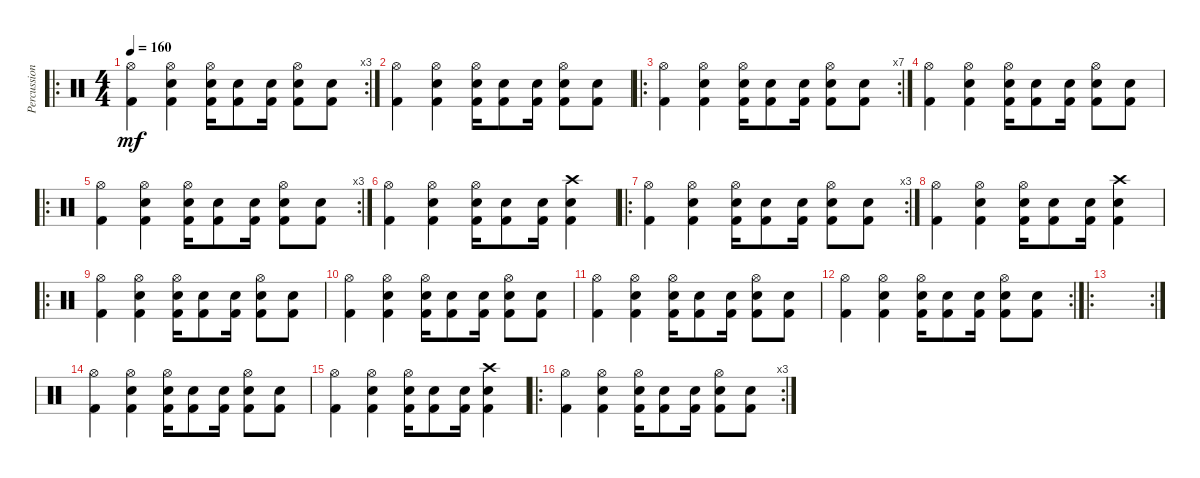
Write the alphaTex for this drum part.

\track ("Percussion" "Percussion") {instrument percussion}
\staff {score}
\articulation defaults
\ro
\rc 3
\ts (4 4)
\tempo 160
\clef neutral
\ks c
("Hi-Hat (open)" "Kick (hit) 2").4{dy mf} ("Hi-Hat (open)" "Electric Snare (hit)" "Kick (hit) 2").4 ("Hi-Hat (open)" "Electric Snare (hit)" "Kick (hit) 2").16 ("Electric Snare (hit)" "Kick (hit) 2").8 ("Electric Snare (hit)" "Kick (hit) 2").16 ("Hi-Hat (open)" "Electric Snare (hit)" "Kick (hit) 2").8 ("Electric Snare (hit)" "Kick (hit) 2").8 |
("Hi-Hat (open)" "Kick (hit) 2").4 ("Hi-Hat (open)" "Electric Snare (hit)" "Kick (hit) 2").4 ("Hi-Hat (open)" "Electric Snare (hit)" "Kick (hit) 2").16 ("Electric Snare (hit)" "Kick (hit) 2").8 ("Electric Snare (hit)" "Kick (hit) 2").16 ("Hi-Hat (open)" "Electric Snare (hit)" "Kick (hit) 2").8 ("Electric Snare (hit)" "Kick (hit) 2").8 |
\ro
\rc 7
("Hi-Hat (open)" "Kick (hit) 2").4 ("Hi-Hat (open)" "Electric Snare (hit)" "Kick (hit) 2").4 ("Hi-Hat (open)" "Electric Snare (hit)" "Kick (hit) 2").16 ("Electric Snare (hit)" "Kick (hit) 2").8 ("Electric Snare (hit)" "Kick (hit) 2").16 ("Hi-Hat (open)" "Electric Snare (hit)" "Kick (hit) 2").8 ("Electric Snare (hit)" "Kick (hit) 2").8 |
("Hi-Hat (open)" "Kick (hit) 2").4 ("Hi-Hat (open)" "Electric Snare (hit)" "Kick (hit) 2").4 ("Hi-Hat (open)" "Electric Snare (hit)" "Kick (hit) 2").16 ("Electric Snare (hit)" "Kick (hit) 2").8 ("Electric Snare (hit)" "Kick (hit) 2").16 ("Hi-Hat (open)" "Electric Snare (hit)" "Kick (hit) 2").8 ("Electric Snare (hit)" "Kick (hit) 2").8 |
\ro
\rc 3
("Hi-Hat (open)" "Kick (hit) 2").4 ("Hi-Hat (open)" "Electric Snare (hit)" "Kick (hit) 2").4 ("Hi-Hat (open)" "Electric Snare (hit)" "Kick (hit) 2").16 ("Electric Snare (hit)" "Kick (hit) 2").8 ("Electric Snare (hit)" "Kick (hit) 2").16 ("Hi-Hat (open)" "Electric Snare (hit)" "Kick (hit) 2").8 ("Electric Snare (hit)" "Kick (hit) 2").8 |
("Hi-Hat (open)" "Kick (hit) 2").4 ("Hi-Hat (open)" "Electric Snare (hit)" "Kick (hit) 2").4 ("Hi-Hat (open)" "Electric Snare (hit)" "Kick (hit) 2").16 ("Electric Snare (hit)" "Kick (hit) 2").8 ("Electric Snare (hit)" "Kick (hit) 2").16 ("Crash high (hit)" "Electric Snare (hit)" "Kick (hit) 2").4 |
\ro
\rc 3
("Hi-Hat (open)" "Kick (hit) 2").4 ("Hi-Hat (open)" "Electric Snare (hit)" "Kick (hit) 2").4 ("Hi-Hat (open)" "Electric Snare (hit)" "Kick (hit) 2").16 ("Electric Snare (hit)" "Kick (hit) 2").8 ("Electric Snare (hit)" "Kick (hit) 2").16 ("Hi-Hat (open)" "Electric Snare (hit)" "Kick (hit) 2").8 ("Electric Snare (hit)" "Kick (hit) 2").8 |
("Hi-Hat (open)" "Kick (hit) 2").4 ("Hi-Hat (open)" "Electric Snare (hit)" "Kick (hit) 2").4 ("Hi-Hat (open)" "Electric Snare (hit)" "Kick (hit) 2").16 ("Electric Snare (hit)" "Kick (hit) 2").8 ("Electric Snare (hit)" "Kick (hit) 2").16 ("Crash high (hit)" "Electric Snare (hit)" "Kick (hit) 2").4 |
\ro
("Hi-Hat (open)" "Kick (hit) 2").4 ("Hi-Hat (open)" "Electric Snare (hit)" "Kick (hit) 2").4 ("Hi-Hat (open)" "Electric Snare (hit)" "Kick (hit) 2").16 ("Electric Snare (hit)" "Kick (hit) 2").8 ("Electric Snare (hit)" "Kick (hit) 2").16 ("Hi-Hat (open)" "Electric Snare (hit)" "Kick (hit) 2").8 ("Electric Snare (hit)" "Kick (hit) 2").8 |
("Hi-Hat (open)" "Kick (hit) 2").4 ("Hi-Hat (open)" "Electric Snare (hit)" "Kick (hit) 2").4 ("Hi-Hat (open)" "Electric Snare (hit)" "Kick (hit) 2").16 ("Electric Snare (hit)" "Kick (hit) 2").8 ("Electric Snare (hit)" "Kick (hit) 2").16 ("Hi-Hat (open)" "Electric Snare (hit)" "Kick (hit) 2").8 ("Electric Snare (hit)" "Kick (hit) 2").8 |
("Hi-Hat (open)" "Kick (hit) 2").4 ("Hi-Hat (open)" "Electric Snare (hit)" "Kick (hit) 2").4 ("Hi-Hat (open)" "Electric Snare (hit)" "Kick (hit) 2").16 ("Electric Snare (hit)" "Kick (hit) 2").8 ("Electric Snare (hit)" "Kick (hit) 2").16 ("Hi-Hat (open)" "Electric Snare (hit)" "Kick (hit) 2").8 ("Electric Snare (hit)" "Kick (hit) 2").8 |
\rc 2
("Hi-Hat (open)" "Kick (hit) 2").4 ("Hi-Hat (open)" "Electric Snare (hit)" "Kick (hit) 2").4 ("Hi-Hat (open)" "Electric Snare (hit)" "Kick (hit) 2").16 ("Electric Snare (hit)" "Kick (hit) 2").8 ("Electric Snare (hit)" "Kick (hit) 2").16 ("Hi-Hat (open)" "Electric Snare (hit)" "Kick (hit) 2").8 ("Electric Snare (hit)" "Kick (hit) 2").8 |
\ro
\rc 2
|
("Hi-Hat (open)" "Kick (hit) 2").4 ("Hi-Hat (open)" "Electric Snare (hit)" "Kick (hit) 2").4 ("Hi-Hat (open)" "Electric Snare (hit)" "Kick (hit) 2").16 ("Electric Snare (hit)" "Kick (hit) 2").8 ("Electric Snare (hit)" "Kick (hit) 2").16 ("Hi-Hat (open)" "Electric Snare (hit)" "Kick (hit) 2").8 ("Electric Snare (hit)" "Kick (hit) 2").8 |
("Hi-Hat (open)" "Kick (hit) 2").4 ("Hi-Hat (open)" "Electric Snare (hit)" "Kick (hit) 2").4 ("Hi-Hat (open)" "Electric Snare (hit)" "Kick (hit) 2").16 ("Electric Snare (hit)" "Kick (hit) 2").8 ("Electric Snare (hit)" "Kick (hit) 2").16 ("Crash high (hit)" "Electric Snare (hit)" "Kick (hit) 2").4 |
\ro
\rc 3
("Hi-Hat (open)" "Kick (hit) 2").4 ("Hi-Hat (open)" "Electric Snare (hit)" "Kick (hit) 2").4 ("Hi-Hat (open)" "Electric Snare (hit)" "Kick (hit) 2").16 ("Electric Snare (hit)" "Kick (hit) 2").8 ("Electric Snare (hit)" "Kick (hit) 2").16 ("Hi-Hat (open)" "Electric Snare (hit)" "Kick (hit) 2").8 ("Electric Snare (hit)" "Kick (hit) 2").8
